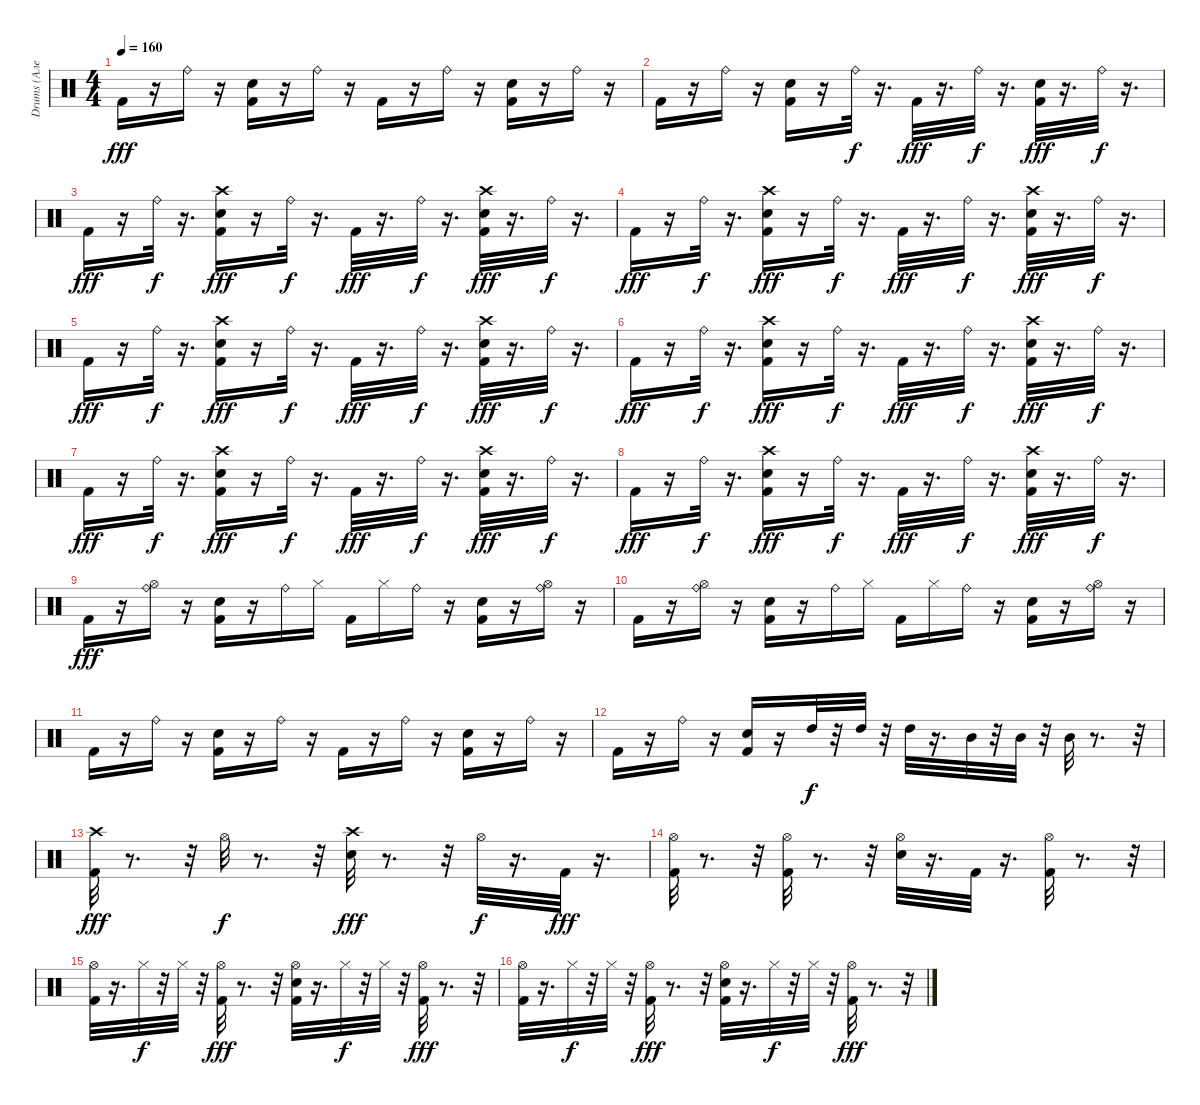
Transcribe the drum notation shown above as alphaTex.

\track ("Drums (Алексей Барзилович)" "Drums (Але") {instrument percussion}
\staff {score}
\articulation defaults
\ts (4 4)
\tempo 160
\clef neutral
\ks c "Kick (hit) 2".16{dy fff}
r.16 "Ride (bell)".16 r.16 ("Electric Snare (hit)" "Kick (hit) 2").16 r.16 "Ride (bell)".16 r.16 "Kick (hit) 2".16 r.16 "Ride (bell)".16 r.16 ("Electric Snare (hit)" "Kick (hit) 2").16 r.16 "Ride (bell)".16 r.16 |
"Kick (hit) 2".16 r.16 "Ride (bell)".16 r.16 ("Electric Snare (hit)" "Kick (hit) 2").16 r.16 "Ride (bell)".32{dy f} r.16{d} "Kick (hit) 2".32{dy fff} r.16{d} "Ride (bell)".32{dy f} r.16{d} ("Kick (hit) 2" "Electric Snare (hit)").32{dy fff} r.16{d} "Ride (bell)".32{dy f} r.16{d} |
"Kick (hit) 2".16{dy fff} r.16 "Ride (bell)".32{dy f} r.16{d} ("Crash high (hit)" "Electric Snare (hit)" "Kick (hit) 2").16{dy fff} r.16 "Ride (bell)".32{dy f} r.16{d} "Kick (hit) 2".32{dy fff} r.16{d} "Ride (bell)".32{dy f} r.16{d} ("Crash high (hit)" "Kick (hit) 2" "Electric Snare (hit)").32{dy fff} r.16{d} "Ride (bell)".32{dy f} r.16{d} |
"Kick (hit) 2".16{dy fff} r.16 "Ride (bell)".32{dy f} r.16{d} ("Crash high (hit)" "Electric Snare (hit)" "Kick (hit) 2").16{dy fff} r.16 "Ride (bell)".32{dy f} r.16{d} "Kick (hit) 2".32{dy fff} r.16{d} "Ride (bell)".32{dy f} r.16{d} ("Crash high (hit)" "Kick (hit) 2" "Electric Snare (hit)").32{dy fff} r.16{d} "Ride (bell)".32{dy f} r.16{d} |
"Kick (hit) 2".16{dy fff} r.16 "Ride (bell)".32{dy f} r.16{d} ("Crash high (hit)" "Electric Snare (hit)" "Kick (hit) 2").16{dy fff} r.16 "Ride (bell)".32{dy f} r.16{d} "Kick (hit) 2".32{dy fff} r.16{d} "Ride (bell)".32{dy f} r.16{d} ("Crash high (hit)" "Kick (hit) 2" "Electric Snare (hit)").32{dy fff} r.16{d} "Ride (bell)".32{dy f} r.16{d} |
"Kick (hit) 2".16{dy fff} r.16 "Ride (bell)".32{dy f} r.16{d} ("Crash high (hit)" "Electric Snare (hit)" "Kick (hit) 2").16{dy fff} r.16 "Ride (bell)".32{dy f} r.16{d} "Kick (hit) 2".32{dy fff} r.16{d} "Ride (bell)".32{dy f} r.16{d} ("Crash high (hit)" "Kick (hit) 2" "Electric Snare (hit)").32{dy fff} r.16{d} "Ride (bell)".32{dy f} r.16{d} |
"Kick (hit) 2".16{dy fff} r.16 "Ride (bell)".32{dy f} r.16{d} ("Crash high (hit)" "Electric Snare (hit)" "Kick (hit) 2").16{dy fff} r.16 "Ride (bell)".32{dy f} r.16{d} "Kick (hit) 2".32{dy fff} r.16{d} "Ride (bell)".32{dy f} r.16{d} ("Crash high (hit)" "Kick (hit) 2" "Electric Snare (hit)").32{dy fff} r.16{d} "Ride (bell)".32{dy f} r.16{d} |
"Kick (hit) 2".16{dy fff} r.16 "Ride (bell)".32{dy f} r.16{d} ("Crash high (hit)" "Electric Snare (hit)" "Kick (hit) 2").16{dy fff} r.16 "Ride (bell)".32{dy f} r.16{d} "Kick (hit) 2".32{dy fff} r.16{d} "Ride (bell)".32{dy f} r.16{d} ("Crash high (hit)" "Kick (hit) 2" "Electric Snare (hit)").32{dy fff} r.16{d} "Ride (bell)".32{dy f} r.16{d} |
"Kick (hit) 2".16{dy fff} r.16 ("Ride (bell)" "Hi-Hat (open)").16 r.16 ("Kick (hit) 2" "Electric Snare (hit)").16 r.16 "Ride (bell)".16 "Hi-Hat (closed)".16 "Kick (hit) 2".16 "Hi-Hat (closed)".16 "Ride (bell)".16 r.16 ("Kick (hit) 2" "Electric Snare (hit)").16 r.16 ("Ride (bell)" "Hi-Hat (open)").16 r.16 |
"Kick (hit) 2".16 r.16 ("Hi-Hat (open)" "Ride (bell)").16 r.16 ("Kick (hit) 2" "Electric Snare (hit)").16 r.16 "Ride (bell)".16 "Hi-Hat (closed)".16 "Kick (hit) 2".16 "Hi-Hat (closed)".16 "Ride (bell)".16 r.16 ("Electric Snare (hit)" "Kick (hit) 2").16 r.16 ("Hi-Hat (open)" "Ride (bell)").16 r.16 |
"Kick (hit) 2".16 r.16 "Ride (bell)".16 r.16 ("Kick (hit) 2" "Electric Snare (hit)").16 r.16 "Ride (bell)".16 r.16 "Kick (hit) 2".16 r.16 "Ride (bell)".16 r.16 ("Electric Snare (hit)" "Kick (hit) 2").16 r.16 "Ride (bell)".16 r.16 |
"Kick (hit) 2".16 r.16 "Ride (bell)".16 r.16 ("Electric Snare (hit)" "Kick (hit) 2").16 r.16 "High Tom (hit)".32{dy f} r.32 "High Tom (hit)".32 r.32 "High Tom (hit)".32 r.16{d} "Mid Tom (hit)".32 r.32 "Mid Tom (hit)".32 r.32 "Mid Tom (hit)".32 r.8{d} r.32 |
("Crash high (hit)" "Kick (hit) 2").32{dy fff} r.8{d} r.32 "Hi-Hat (open)".32{dy f} r.8{d} r.32 ("Crash high (hit)" "Electric Snare (hit)").32{dy fff} r.8{d} r.32 "Hi-Hat (open)".32{dy f} r.16{d} "Kick (hit) 2".32{dy fff} r.16{d} |
("Hi-Hat (open)" "Kick (hit) 2").32 r.8{d} r.32 ("Hi-Hat (open)" "Kick (hit) 2").32 r.8{d} r.32 ("Hi-Hat (open)" "Electric Snare (hit)").32 r.16{d} "Kick (hit) 2".32 r.16{d} ("Hi-Hat (open)" "Kick (hit) 2").32 r.8{d} r.32 |
("Hi-Hat (open)" "Kick (hit) 2").32 r.16{d} "Hi-Hat (closed)".32{dy f} r.32 "Hi-Hat (closed)".32 r.32 ("Hi-Hat (open)" "Kick (hit) 2").32{dy fff} r.8{d} r.32 ("Hi-Hat (open)" "Electric Snare (hit)" "Kick (hit) 2").32 r.16{d} "Hi-Hat (closed)".32{dy f} r.32 "Hi-Hat (closed)".32 r.32 ("Hi-Hat (open)" "Kick (hit) 2").32{dy fff} r.8{d} r.32 |
("Hi-Hat (open)" "Kick (hit) 2").32 r.16{d} "Hi-Hat (closed)".32{dy f} r.32 "Hi-Hat (closed)".32 r.32 ("Hi-Hat (open)" "Kick (hit) 2").32{dy fff} r.8{d} r.32 ("Hi-Hat (open)" "Electric Snare (hit)" "Kick (hit) 2").32 r.16{d} "Hi-Hat (closed)".32{dy f} r.32 "Hi-Hat (closed)".32 r.32 ("Hi-Hat (open)" "Kick (hit) 2").32{dy fff} r.8{d} r.32
